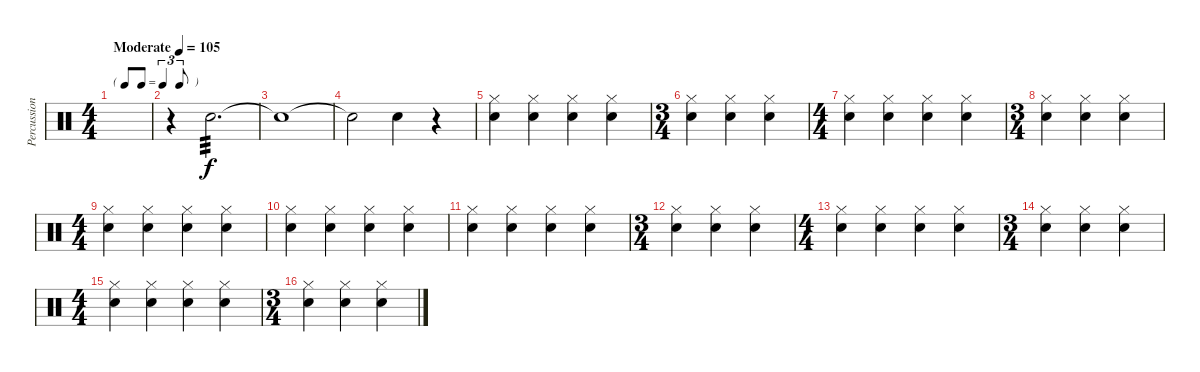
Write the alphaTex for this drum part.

\track ("Percussion" "Percussion") {instrument percussion}
\staff {score}
\articulation defaults
\ts (4 4)
\tf triplet8th
\tempo (105 "Moderate")
\clef neutral
\ks c
|
r.4 "Snare (hit) 2".2{d tp 3} |
"Snare (hit) 2"{t}.1 |
"Snare (hit)"{t}.2 "Snare (hit) 2".4 r.4 |
("Hi-Hat (closed)" "Snare (hit) 2").4 ("Hi-Hat (closed)" "Snare (hit) 2").4 ("Hi-Hat (closed)" "Snare (hit) 2").4 ("Hi-Hat (closed)" "Snare (hit) 2").4 |
\ts (3 4)
("Hi-Hat (closed)" "Snare (hit) 2").4 ("Hi-Hat (closed)" "Snare (hit) 2").4 ("Hi-Hat (closed)" "Snare (hit) 2").4 |
\ts (4 4)
("Hi-Hat (closed)" "Snare (hit) 2").4 ("Hi-Hat (closed)" "Snare (hit) 2").4 ("Hi-Hat (closed)" "Snare (hit) 2").4 ("Hi-Hat (closed)" "Snare (hit) 2").4 |
\ts (3 4)
("Hi-Hat (closed)" "Snare (hit) 2").4 ("Hi-Hat (closed)" "Snare (hit) 2").4 ("Hi-Hat (closed)" "Snare (hit) 2").4 |
\ts (4 4)
("Hi-Hat (closed)" "Snare (hit) 2").4 ("Hi-Hat (closed)" "Snare (hit) 2").4 ("Hi-Hat (closed)" "Snare (hit) 2").4 ("Hi-Hat (closed)" "Snare (hit) 2").4 |
("Hi-Hat (closed)" "Snare (hit) 2").4 ("Hi-Hat (closed)" "Snare (hit) 2").4 ("Hi-Hat (closed)" "Snare (hit) 2").4 ("Hi-Hat (closed)" "Snare (hit) 2").4 |
("Hi-Hat (closed)" "Snare (hit) 2").4 ("Hi-Hat (closed)" "Snare (hit) 2").4 ("Hi-Hat (closed)" "Snare (hit) 2").4 ("Hi-Hat (closed)" "Snare (hit) 2").4 |
\ts (3 4)
("Hi-Hat (closed)" "Snare (hit) 2").4 ("Hi-Hat (closed)" "Snare (hit) 2").4 ("Hi-Hat (closed)" "Snare (hit) 2").4 |
\ts (4 4)
("Hi-Hat (closed)" "Snare (hit) 2").4 ("Hi-Hat (closed)" "Snare (hit) 2").4 ("Hi-Hat (closed)" "Snare (hit) 2").4 ("Hi-Hat (closed)" "Snare (hit) 2").4 |
\ts (3 4)
("Hi-Hat (closed)" "Snare (hit) 2").4 ("Hi-Hat (closed)" "Snare (hit) 2").4 ("Hi-Hat (closed)" "Snare (hit) 2").4 |
\ts (4 4)
("Hi-Hat (closed)" "Snare (hit) 2").4 ("Hi-Hat (closed)" "Snare (hit) 2").4 ("Hi-Hat (closed)" "Snare (hit) 2").4 ("Hi-Hat (closed)" "Snare (hit) 2").4 |
\ts (3 4)
("Hi-Hat (closed)" "Snare (hit) 2").4 ("Hi-Hat (closed)" "Snare (hit) 2").4 ("Hi-Hat (closed)" "Snare (hit) 2").4
